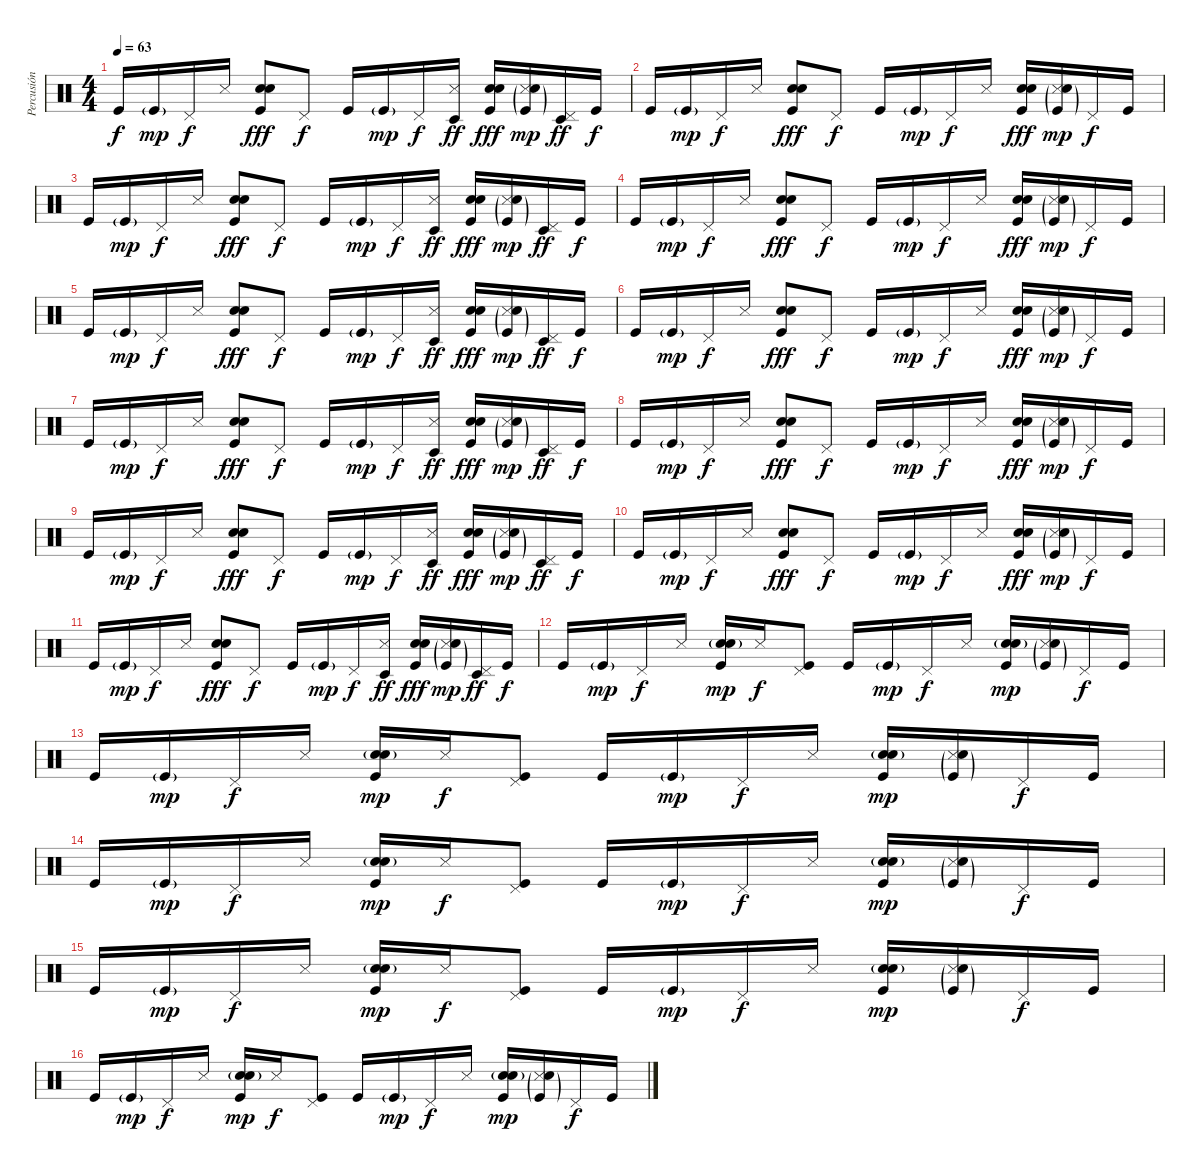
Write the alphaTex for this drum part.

\track ("Percusión" "Percusión") {instrument percussion}
\staff {score}
\articulation defaults
\ts (4 4)
\tempo 63
\clef neutral
\ks c "Kick (hit)".16{dy f} "Kick (hit)"{g}.16{dy mp} "Pedal Hi-Hat (hit)".16{dy f} "Snare (side stick) 3".16
("Kick (hit)" "Snare (hit) 2" "Hand Clap (hit)").8{dy fff} "Pedal Hi-Hat (hit)".8{dy f} "Kick (hit)".16 "Kick (hit)"{g}.16{dy mp} "Pedal Hi-Hat (hit)".16{dy f} ("Timbale low (hit)" "Snare (side stick) 3").16{dy ff} ("Kick (hit)" "Snare (hit) 2" "Hand Clap (hit)").16{dy fff} ("Kick (hit)"{g} "Snare (side stick) 3" "Hand Clap (hit)"{g}).16{dy mp} ("Timbale low (hit)" "Pedal Hi-Hat (hit)").16{dy ff} "Kick (hit)".16{dy f} |
"Kick (hit)".16 "Kick (hit)"{g}.16{dy mp} "Pedal Hi-Hat (hit)".16{dy f} "Snare (side stick) 3".16 ("Kick (hit)" "Snare (hit) 2" "Hand Clap (hit)").8{dy fff} "Pedal Hi-Hat (hit)".8{dy f} "Kick (hit)".16 "Kick (hit)"{g}.16{dy mp} "Pedal Hi-Hat (hit)".16{dy f} "Snare (side stick) 3".16 ("Kick (hit)" "Snare (hit) 2" "Hand Clap (hit)").16{dy fff} ("Kick (hit)"{g} "Snare (side stick) 3" "Hand Clap (hit)"{g}).16{dy mp} "Pedal Hi-Hat (hit)".16{dy f} "Kick (hit)".16 |
"Kick (hit)".16 "Kick (hit)"{g}.16{dy mp} "Pedal Hi-Hat (hit)".16{dy f} "Snare (side stick) 3".16 ("Kick (hit)" "Snare (hit) 2" "Hand Clap (hit)").8{dy fff} "Pedal Hi-Hat (hit)".8{dy f} "Kick (hit)".16 "Kick (hit)"{g}.16{dy mp} "Pedal Hi-Hat (hit)".16{dy f} ("Timbale low (hit)" "Snare (side stick) 3").16{dy ff} ("Kick (hit)" "Snare (hit) 2" "Hand Clap (hit)").16{dy fff} ("Kick (hit)"{g} "Snare (side stick) 3" "Hand Clap (hit)"{g}).16{dy mp} ("Timbale low (hit)" "Pedal Hi-Hat (hit)").16{dy ff} "Kick (hit)".16{dy f} |
"Kick (hit)".16 "Kick (hit)"{g}.16{dy mp} "Pedal Hi-Hat (hit)".16{dy f} "Snare (side stick) 3".16 ("Kick (hit)" "Snare (hit) 2" "Hand Clap (hit)").8{dy fff} "Pedal Hi-Hat (hit)".8{dy f} "Kick (hit)".16 "Kick (hit)"{g}.16{dy mp} "Pedal Hi-Hat (hit)".16{dy f} "Snare (side stick) 3".16 ("Kick (hit)" "Snare (hit) 2" "Hand Clap (hit)").16{dy fff} ("Kick (hit)"{g} "Snare (side stick) 3" "Hand Clap (hit)"{g}).16{dy mp} "Pedal Hi-Hat (hit)".16{dy f} "Kick (hit)".16 |
"Kick (hit)".16 "Kick (hit)"{g}.16{dy mp} "Pedal Hi-Hat (hit)".16{dy f} "Snare (side stick) 3".16 ("Kick (hit)" "Snare (hit) 2" "Hand Clap (hit)").8{dy fff} "Pedal Hi-Hat (hit)".8{dy f} "Kick (hit)".16 "Kick (hit)"{g}.16{dy mp} "Pedal Hi-Hat (hit)".16{dy f} ("Timbale low (hit)" "Snare (side stick) 3").16{dy ff} ("Kick (hit)" "Snare (hit) 2" "Hand Clap (hit)").16{dy fff} ("Kick (hit)"{g} "Snare (side stick) 3" "Hand Clap (hit)"{g}).16{dy mp} ("Timbale low (hit)" "Pedal Hi-Hat (hit)").16{dy ff} "Kick (hit)".16{dy f} |
"Kick (hit)".16 "Kick (hit)"{g}.16{dy mp} "Pedal Hi-Hat (hit)".16{dy f} "Snare (side stick) 3".16 ("Kick (hit)" "Snare (hit) 2" "Hand Clap (hit)").8{dy fff} "Pedal Hi-Hat (hit)".8{dy f} "Kick (hit)".16 "Kick (hit)"{g}.16{dy mp} "Pedal Hi-Hat (hit)".16{dy f} "Snare (side stick) 3".16 ("Kick (hit)" "Snare (hit) 2" "Hand Clap (hit)").16{dy fff} ("Kick (hit)"{g} "Snare (side stick) 3" "Hand Clap (hit)"{g}).16{dy mp} "Pedal Hi-Hat (hit)".16{dy f} "Kick (hit)".16 |
"Kick (hit)".16 "Kick (hit)"{g}.16{dy mp} "Pedal Hi-Hat (hit)".16{dy f} "Snare (side stick) 3".16 ("Kick (hit)" "Snare (hit) 2" "Hand Clap (hit)").8{dy fff} "Pedal Hi-Hat (hit)".8{dy f} "Kick (hit)".16 "Kick (hit)"{g}.16{dy mp} "Pedal Hi-Hat (hit)".16{dy f} ("Timbale low (hit)" "Snare (side stick) 3").16{dy ff} ("Kick (hit)" "Snare (hit) 2" "Hand Clap (hit)").16{dy fff} ("Kick (hit)"{g} "Snare (side stick) 3" "Hand Clap (hit)"{g}).16{dy mp} ("Timbale low (hit)" "Pedal Hi-Hat (hit)").16{dy ff} "Kick (hit)".16{dy f} |
"Kick (hit)".16 "Kick (hit)"{g}.16{dy mp} "Pedal Hi-Hat (hit)".16{dy f} "Snare (side stick) 3".16 ("Kick (hit)" "Snare (hit) 2" "Hand Clap (hit)").8{dy fff} "Pedal Hi-Hat (hit)".8{dy f} "Kick (hit)".16 "Kick (hit)"{g}.16{dy mp} "Pedal Hi-Hat (hit)".16{dy f} "Snare (side stick) 3".16 ("Kick (hit)" "Snare (hit) 2" "Hand Clap (hit)").16{dy fff} ("Kick (hit)"{g} "Snare (side stick) 3" "Hand Clap (hit)"{g}).16{dy mp} "Pedal Hi-Hat (hit)".16{dy f} "Kick (hit)".16 |
"Kick (hit)".16 "Kick (hit)"{g}.16{dy mp} "Pedal Hi-Hat (hit)".16{dy f} "Snare (side stick) 3".16 ("Kick (hit)" "Snare (hit) 2" "Hand Clap (hit)").8{dy fff} "Pedal Hi-Hat (hit)".8{dy f} "Kick (hit)".16 "Kick (hit)"{g}.16{dy mp} "Pedal Hi-Hat (hit)".16{dy f} ("Timbale low (hit)" "Snare (side stick) 3").16{dy ff} ("Kick (hit)" "Snare (hit) 2" "Hand Clap (hit)").16{dy fff} ("Kick (hit)"{g} "Snare (side stick) 3" "Hand Clap (hit)"{g}).16{dy mp} ("Timbale low (hit)" "Pedal Hi-Hat (hit)").16{dy ff} "Kick (hit)".16{dy f} |
"Kick (hit)".16 "Kick (hit)"{g}.16{dy mp} "Pedal Hi-Hat (hit)".16{dy f} "Snare (side stick) 3".16 ("Kick (hit)" "Snare (hit) 2" "Hand Clap (hit)").8{dy fff} "Pedal Hi-Hat (hit)".8{dy f} "Kick (hit)".16 "Kick (hit)"{g}.16{dy mp} "Pedal Hi-Hat (hit)".16{dy f} "Snare (side stick) 3".16 ("Kick (hit)" "Snare (hit) 2" "Hand Clap (hit)").16{dy fff} ("Kick (hit)"{g} "Snare (side stick) 3" "Hand Clap (hit)"{g}).16{dy mp} "Pedal Hi-Hat (hit)".16{dy f} "Kick (hit)".16 |
"Kick (hit)".16 "Kick (hit)"{g}.16{dy mp} "Pedal Hi-Hat (hit)".16{dy f} "Snare (side stick) 3".16 ("Kick (hit)" "Snare (hit) 2" "Hand Clap (hit)").8{dy fff} "Pedal Hi-Hat (hit)".8{dy f} "Kick (hit)".16 "Kick (hit)"{g}.16{dy mp} "Pedal Hi-Hat (hit)".16{dy f} ("Timbale low (hit)" "Snare (side stick) 3").16{dy ff} ("Kick (hit)" "Snare (hit) 2" "Hand Clap (hit)").16{dy fff} ("Kick (hit)"{g} "Snare (side stick) 3" "Hand Clap (hit)"{g}).16{dy mp} ("Timbale low (hit)" "Pedal Hi-Hat (hit)").16{dy ff} "Kick (hit)".16{dy f} |
"Kick (hit)".16 "Kick (hit)"{g}.16{dy mp} "Pedal Hi-Hat (hit)".16{dy f} "Snare (side stick) 3".16 ("Kick (hit)" "Snare (hit) 2"{g} "Hand Clap (hit)").16{dy mp} "Snare (side stick) 3".16{dy f} ("Kick (hit)" "Pedal Hi-Hat (hit)").8 "Kick (hit)".16 "Kick (hit)"{g}.16{dy mp} "Pedal Hi-Hat (hit)".16{dy f} "Snare (side stick) 3".16 ("Kick (hit)" "Snare (hit) 2"{g} "Hand Clap (hit)").16{dy mp} ("Kick (hit)"{g} "Snare (side stick) 3" "Hand Clap (hit)"{g}).16 "Pedal Hi-Hat (hit)".16{dy f} "Kick (hit)".16 |
"Kick (hit)".16 "Kick (hit)"{g}.16{dy mp} "Pedal Hi-Hat (hit)".16{dy f} "Snare (side stick) 3".16 ("Kick (hit)" "Snare (hit) 2"{g} "Hand Clap (hit)").16{dy mp} "Snare (side stick) 3".16{dy f} ("Kick (hit)" "Pedal Hi-Hat (hit)").8 "Kick (hit)".16 "Kick (hit)"{g}.16{dy mp} "Pedal Hi-Hat (hit)".16{dy f} "Snare (side stick) 3".16 ("Kick (hit)" "Snare (hit) 2"{g} "Hand Clap (hit)").16{dy mp} ("Kick (hit)"{g} "Snare (side stick) 3" "Hand Clap (hit)"{g}).16 "Pedal Hi-Hat (hit)".16{dy f} "Kick (hit)".16 |
"Kick (hit)".16 "Kick (hit)"{g}.16{dy mp} "Pedal Hi-Hat (hit)".16{dy f} "Snare (side stick) 3".16 ("Kick (hit)" "Snare (hit) 2"{g} "Hand Clap (hit)").16{dy mp} "Snare (side stick) 3".16{dy f} ("Kick (hit)" "Pedal Hi-Hat (hit)").8 "Kick (hit)".16 "Kick (hit)"{g}.16{dy mp} "Pedal Hi-Hat (hit)".16{dy f} "Snare (side stick) 3".16 ("Kick (hit)" "Snare (hit) 2"{g} "Hand Clap (hit)").16{dy mp} ("Kick (hit)"{g} "Snare (side stick) 3" "Hand Clap (hit)"{g}).16 "Pedal Hi-Hat (hit)".16{dy f} "Kick (hit)".16 |
"Kick (hit)".16 "Kick (hit)"{g}.16{dy mp} "Pedal Hi-Hat (hit)".16{dy f} "Snare (side stick) 3".16 ("Kick (hit)" "Snare (hit) 2"{g} "Hand Clap (hit)").16{dy mp} "Snare (side stick) 3".16{dy f} ("Kick (hit)" "Pedal Hi-Hat (hit)").8 "Kick (hit)".16 "Kick (hit)"{g}.16{dy mp} "Pedal Hi-Hat (hit)".16{dy f} "Snare (side stick) 3".16 ("Kick (hit)" "Snare (hit) 2"{g} "Hand Clap (hit)").16{dy mp} ("Kick (hit)"{g} "Snare (side stick) 3" "Hand Clap (hit)"{g}).16 "Pedal Hi-Hat (hit)".16{dy f} "Kick (hit)".16 |
"Kick (hit)".16 "Kick (hit)"{g}.16{dy mp} "Pedal Hi-Hat (hit)".16{dy f} "Snare (side stick) 3".16 ("Kick (hit)" "Snare (hit) 2"{g} "Hand Clap (hit)").16{dy mp} "Snare (side stick) 3".16{dy f} ("Kick (hit)" "Pedal Hi-Hat (hit)").8 "Kick (hit)".16 "Kick (hit)"{g}.16{dy mp} "Pedal Hi-Hat (hit)".16{dy f} "Snare (side stick) 3".16 ("Kick (hit)" "Snare (hit) 2"{g} "Hand Clap (hit)").16{dy mp} ("Kick (hit)"{g} "Snare (side stick) 3" "Hand Clap (hit)"{g}).16 "Pedal Hi-Hat (hit)".16{dy f} "Kick (hit)".16
